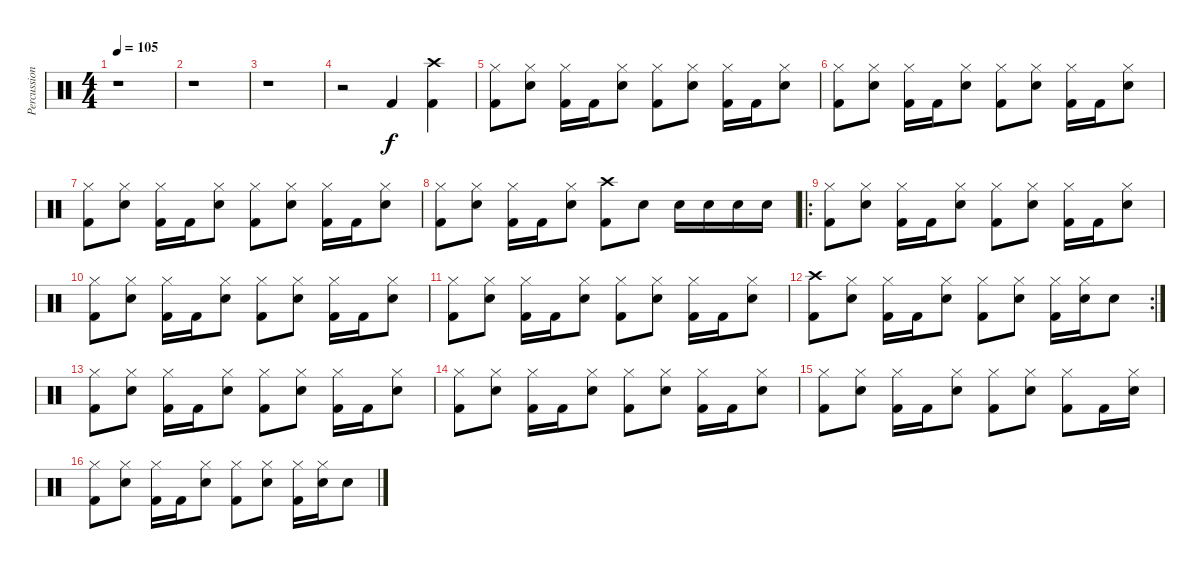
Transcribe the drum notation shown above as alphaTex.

\track ("Percussion" "Percussion") {instrument percussion}
\staff {score}
\articulation defaults
\ts (4 4)
\tempo 105
\clef neutral
\ks c
r.1{dy f} |
r.1 |
r.1 |
r.2 "Kick (hit) 2".4 ("Crash high (hit)" "Kick (hit) 2").4 |
("Hi-Hat (closed)" "Kick (hit) 2").8 ("Hi-Hat (closed)" "Snare (hit) 2").8 ("Hi-Hat (closed)" "Kick (hit) 2").16 "Kick (hit) 2".16 ("Hi-Hat (closed)" "Snare (hit) 2").8 ("Hi-Hat (closed)" "Kick (hit) 2").8 ("Hi-Hat (closed)" "Snare (hit) 2").8 ("Hi-Hat (closed)" "Kick (hit) 2").16 "Kick (hit) 2".16 ("Hi-Hat (closed)" "Snare (hit) 2").8 |
("Hi-Hat (closed)" "Kick (hit) 2").8 ("Hi-Hat (closed)" "Snare (hit) 2").8 ("Hi-Hat (closed)" "Kick (hit) 2").16 "Kick (hit) 2".16 ("Hi-Hat (closed)" "Snare (hit) 2").8 ("Hi-Hat (closed)" "Kick (hit) 2").8 ("Hi-Hat (closed)" "Snare (hit) 2").8 ("Hi-Hat (closed)" "Kick (hit) 2").16 "Kick (hit) 2".16 ("Hi-Hat (closed)" "Snare (hit) 2").8 |
("Hi-Hat (closed)" "Kick (hit) 2").8 ("Hi-Hat (closed)" "Snare (hit) 2").8 ("Hi-Hat (closed)" "Kick (hit) 2").16 "Kick (hit) 2".16 ("Hi-Hat (closed)" "Snare (hit) 2").8 ("Hi-Hat (closed)" "Kick (hit) 2").8 ("Hi-Hat (closed)" "Snare (hit) 2").8 ("Hi-Hat (closed)" "Kick (hit) 2").16 "Kick (hit) 2".16 ("Hi-Hat (closed)" "Snare (hit) 2").8 |
("Hi-Hat (closed)" "Kick (hit) 2").8 ("Hi-Hat (closed)" "Snare (hit) 2").8 ("Hi-Hat (closed)" "Kick (hit) 2").16 "Kick (hit) 2".16 ("Hi-Hat (closed)" "Snare (hit) 2").8 ("Crash high (hit)" "Kick (hit) 2").8 "Snare (hit) 2".8 "Snare (hit) 2".16 "Snare (hit) 2".16 "Snare (hit) 2".16 "Snare (hit) 2".16 |
\ro
("Hi-Hat (closed)" "Kick (hit) 2").8 ("Hi-Hat (closed)" "Snare (hit) 2").8 ("Hi-Hat (closed)" "Kick (hit) 2").16 "Kick (hit) 2".16 ("Hi-Hat (closed)" "Snare (hit) 2").8 ("Hi-Hat (closed)" "Kick (hit) 2").8 ("Hi-Hat (closed)" "Snare (hit) 2").8 ("Hi-Hat (closed)" "Kick (hit) 2").16 "Kick (hit) 2".16 ("Hi-Hat (closed)" "Snare (hit) 2").8 |
("Hi-Hat (closed)" "Kick (hit) 2").8 ("Hi-Hat (closed)" "Snare (hit) 2").8 ("Hi-Hat (closed)" "Kick (hit) 2").16 "Kick (hit) 2".16 ("Hi-Hat (closed)" "Snare (hit) 2").8 ("Hi-Hat (closed)" "Kick (hit) 2").8 ("Hi-Hat (closed)" "Snare (hit) 2").8 ("Hi-Hat (closed)" "Kick (hit) 2").16 "Kick (hit) 2".16 ("Hi-Hat (closed)" "Snare (hit) 2").8 |
("Hi-Hat (closed)" "Kick (hit) 2").8 ("Hi-Hat (closed)" "Snare (hit) 2").8 ("Hi-Hat (closed)" "Kick (hit) 2").16 "Kick (hit) 2".16 ("Hi-Hat (closed)" "Snare (hit) 2").8 ("Hi-Hat (closed)" "Kick (hit) 2").8 ("Hi-Hat (closed)" "Snare (hit) 2").8 ("Hi-Hat (closed)" "Kick (hit) 2").16 "Kick (hit) 2".16 ("Hi-Hat (closed)" "Snare (hit) 2").8 |
\rc 2
("Crash high (hit)" "Kick (hit) 2").8 ("Hi-Hat (closed)" "Snare (hit) 2").8 ("Hi-Hat (closed)" "Kick (hit) 2").16 "Kick (hit) 2".16 ("Hi-Hat (closed)" "Snare (hit) 2").8 ("Hi-Hat (closed)" "Kick (hit) 2").8 ("Hi-Hat (closed)" "Snare (hit) 2").8 ("Hi-Hat (closed)" "Kick (hit) 2").16 ("Hi-Hat (closed)" "Snare (hit) 2").16 "Snare (hit) 2".8 |
("Hi-Hat (closed)" "Kick (hit) 2").8 ("Hi-Hat (closed)" "Snare (hit) 2").8 ("Hi-Hat (closed)" "Kick (hit) 2").16 "Kick (hit) 2".16 ("Hi-Hat (closed)" "Snare (hit) 2").8 ("Hi-Hat (closed)" "Kick (hit) 2").8 ("Hi-Hat (closed)" "Snare (hit) 2").8 ("Hi-Hat (closed)" "Kick (hit) 2").16 "Kick (hit) 2".16 ("Hi-Hat (closed)" "Snare (hit) 2").8 |
("Hi-Hat (closed)" "Kick (hit) 2").8 ("Hi-Hat (closed)" "Snare (hit) 2").8 ("Hi-Hat (closed)" "Kick (hit) 2").16 "Kick (hit) 2".16 ("Hi-Hat (closed)" "Snare (hit) 2").8 ("Hi-Hat (closed)" "Kick (hit) 2").8 ("Hi-Hat (closed)" "Snare (hit) 2").8 ("Hi-Hat (closed)" "Kick (hit) 2").16 "Kick (hit) 2".16 ("Hi-Hat (closed)" "Snare (hit) 2").8 |
("Hi-Hat (closed)" "Kick (hit) 2").8 ("Hi-Hat (closed)" "Snare (hit) 2").8 ("Hi-Hat (closed)" "Kick (hit) 2").16 "Kick (hit) 2".16 ("Hi-Hat (closed)" "Snare (hit) 2").8 ("Hi-Hat (closed)" "Kick (hit) 2").8 ("Hi-Hat (closed)" "Snare (hit) 2").8 ("Hi-Hat (closed)" "Kick (hit) 2").8 "Kick (hit) 2".16 ("Hi-Hat (closed)" "Snare (hit) 2").16 |
("Hi-Hat (closed)" "Kick (hit) 2").8 ("Hi-Hat (closed)" "Snare (hit) 2").8 ("Hi-Hat (closed)" "Kick (hit) 2").16 "Kick (hit) 2".16 ("Hi-Hat (closed)" "Snare (hit) 2").8 ("Hi-Hat (closed)" "Kick (hit) 2").8 ("Hi-Hat (closed)" "Snare (hit) 2").8 ("Hi-Hat (closed)" "Kick (hit) 2").16 ("Hi-Hat (closed)" "Snare (hit) 2").16 "Snare (hit) 2".8
